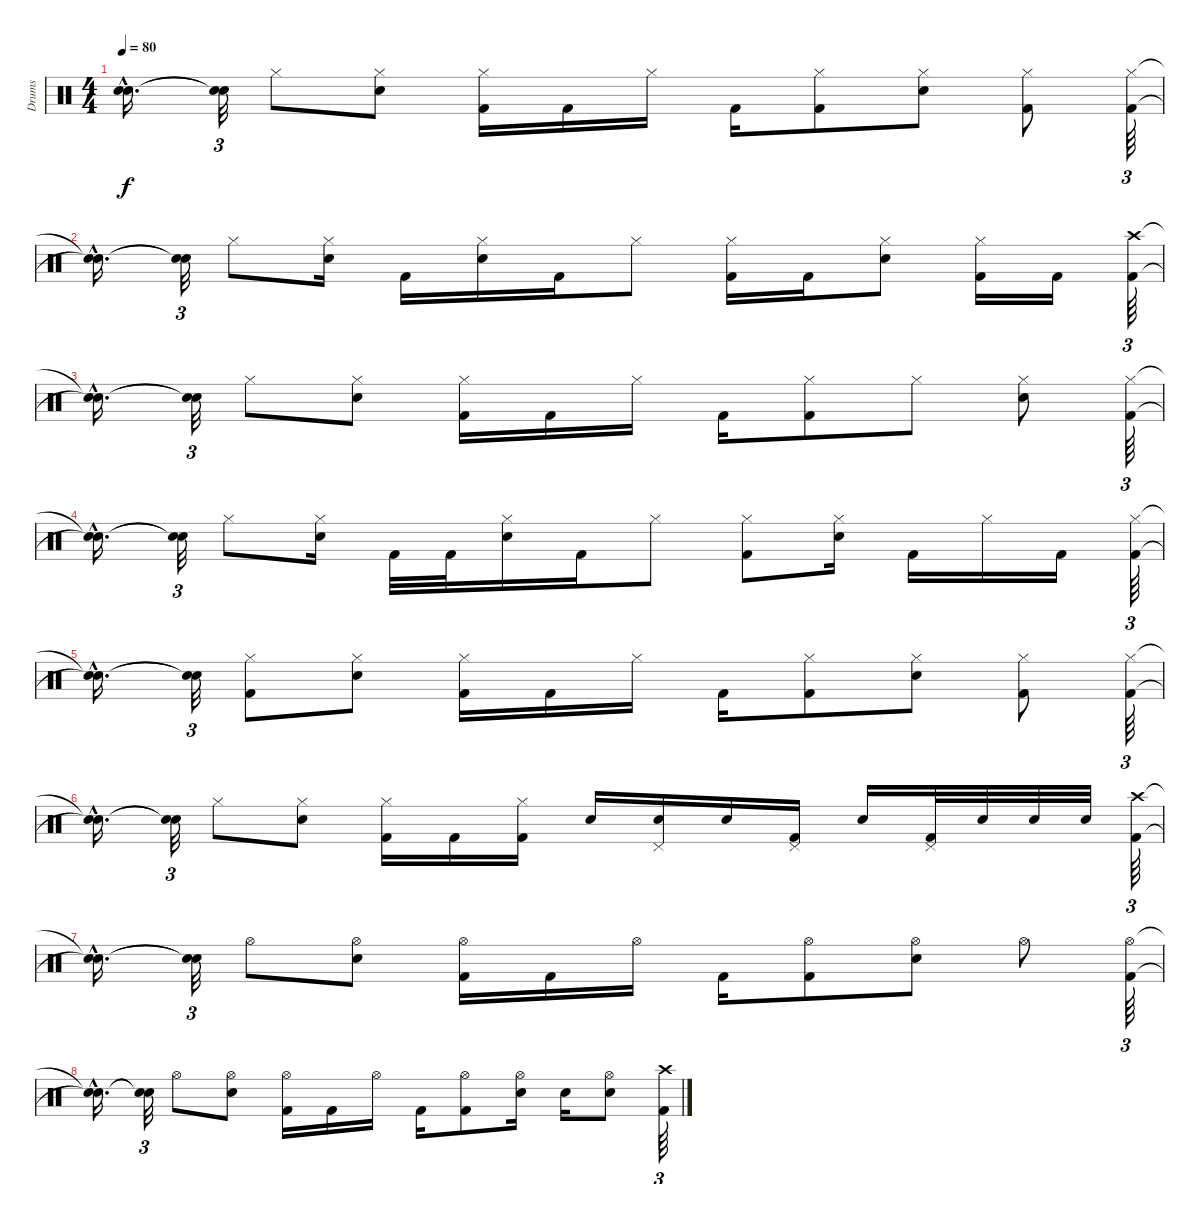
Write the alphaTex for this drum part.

\track ("Drums" "Drums") {instrument percussion}
\staff {score}
\articulation defaults
\ts (4 4)
\tempo 80
\clef neutral
\ks c
("Snare (hit)"{hac t} "Snare (hit)"{hac t}).16{d dy f} ("Snare (hit)"{t} "Snare (hit)"{t}).32{tu (3 2)} "Hi-Hat (closed)".8 ("Hi-Hat (closed)" "Electric Snare (hit)").8 ("Hi-Hat (closed)" "Kick (hit) 2").16 "Kick (hit) 2".16 "Hi-Hat (closed)".16 "Kick (hit) 2".16 ("Hi-Hat (closed)" "Kick (hit) 2").8 ("Hi-Hat (closed)" "Electric Snare (hit)").8 ("Hi-Hat (closed)" "Kick (hit) 2").8 ("Hi-Hat (closed)" "Kick (hit) 2").64{tu (3 2)} |
("Snare (hit)"{hac t} "Snare (hit)"{hac t}).16{d} ("Snare (hit)"{t} "Snare (hit)"{t}).32{tu (3 2)} "Hi-Hat (closed)".8 ("Hi-Hat (closed)" "Electric Snare (hit)").16 "Kick (hit) 2".16 ("Hi-Hat (closed)" "Electric Snare (hit)").16 "Kick (hit) 2".16 "Hi-Hat (closed)".8 ("Hi-Hat (closed)" "Kick (hit) 2").16 "Kick (hit) 2".16 ("Hi-Hat (closed)" "Electric Snare (hit)").8 ("Hi-Hat (closed)" "Kick (hit) 2").16 "Kick (hit) 2".16 ("Crash high (hit)" "Kick (hit) 2").64{tu (3 2)} |
("Snare (hit)"{hac t} "Snare (hit)"{hac t}).16{d} ("Snare (hit)"{t} "Snare (hit)"{t}).32{tu (3 2)} "Hi-Hat (closed)".8 ("Hi-Hat (closed)" "Electric Snare (hit)").8 ("Hi-Hat (closed)" "Kick (hit) 2").16 "Kick (hit) 2".16 "Hi-Hat (closed)".16 "Kick (hit) 2".16 ("Hi-Hat (closed)" "Kick (hit) 2").8 "Hi-Hat (closed)".8 ("Hi-Hat (closed)" "Electric Snare (hit)").8 ("Hi-Hat (closed)" "Kick (hit) 2").64{tu (3 2)} |
("Snare (hit)"{hac t} "Snare (hit)"{hac t}).16{d} ("Snare (hit)"{t} "Snare (hit)"{t}).32{tu (3 2)} "Hi-Hat (closed)".8 ("Hi-Hat (closed)" "Electric Snare (hit)").16 "Kick (hit) 2".32 "Kick (hit) 2".32 ("Hi-Hat (closed)" "Electric Snare (hit)").16 "Kick (hit) 2".16 "Hi-Hat (closed)".8 ("Hi-Hat (closed)" "Kick (hit) 2").8 ("Hi-Hat (closed)" "Electric Snare (hit)").16 "Kick (hit) 2".16 "Hi-Hat (closed)".16 "Kick (hit) 2".16 ("Hi-Hat (closed)" "Kick (hit) 2").64{tu (3 2)} |
("Snare (hit)"{hac t} "Snare (hit)"{hac t}).16{d} ("Snare (hit)"{t} "Snare (hit)"{t}).32{tu (3 2)} ("Hi-Hat (closed)" "Kick (hit) 2").8 ("Hi-Hat (closed)" "Electric Snare (hit)").8 ("Hi-Hat (closed)" "Kick (hit) 2").16 "Kick (hit) 2".16 "Hi-Hat (closed)".16 "Kick (hit) 2".16 ("Hi-Hat (closed)" "Kick (hit) 2").8 ("Hi-Hat (closed)" "Electric Snare (hit)").8 ("Hi-Hat (closed)" "Kick (hit) 2").8 ("Hi-Hat (closed)" "Kick (hit) 2").64{tu (3 2)} |
("Snare (hit)"{hac t} "Snare (hit)"{hac t}).16{d} ("Snare (hit)"{t} "Snare (hit)"{t}).32{tu (3 2)} "Hi-Hat (closed)".8 ("Hi-Hat (closed)" "Electric Snare (hit)").8 ("Hi-Hat (closed)" "Kick (hit) 2").16 "Kick (hit) 2".16 ("Hi-Hat (closed)" "Kick (hit) 2").16 "Electric Snare (hit)".16 ("Pedal Hi-Hat (hit)" "Electric Snare (hit)").16 "Electric Snare (hit)".16 ("Pedal Hi-Hat (hit)" "Kick (hit) 2").16 "Electric Snare (hit)".16 ("Pedal Hi-Hat (hit)" "Kick (hit) 2").32 "Electric Snare (hit)".32 "Electric Snare (hit)".32 "Electric Snare (hit)".32 ("Crash high (hit)" "Kick (hit) 2").64{tu (3 2)} |
("Snare (hit)"{hac t} "Snare (hit)"{hac t}).16{d} ("Snare (hit)"{t} "Snare (hit)"{t}).32{tu (3 2)} "Hi-Hat (open)".8 ("Hi-Hat (open)" "Electric Snare (hit)").8 ("Hi-Hat (open)" "Kick (hit) 2").16 "Kick (hit) 2".16 "Hi-Hat (open)".16 "Kick (hit) 2".16 ("Hi-Hat (open)" "Kick (hit) 2").8 ("Hi-Hat (open)" "Electric Snare (hit)").8 "Hi-Hat (open)".8 ("Hi-Hat (open)" "Kick (hit) 2").64{tu (3 2)} |
("Snare (hit)"{hac t} "Snare (hit)"{hac t}).16{d} ("Snare (hit)"{t} "Snare (hit)"{t}).32{tu (3 2)} "Hi-Hat (open)".8 ("Hi-Hat (open)" "Electric Snare (hit)").8 ("Hi-Hat (open)" "Kick (hit) 2").16 "Kick (hit) 2".16 "Hi-Hat (open)".16 "Kick (hit) 2".16 ("Hi-Hat (open)" "Kick (hit) 2").8 ("Hi-Hat (open)" "Electric Snare (hit)").16 "Electric Snare (hit)".16 ("Hi-Hat (open)" "Electric Snare (hit)").8 ("Crash high (hit)" "Kick (hit) 2").64{tu (3 2)}
